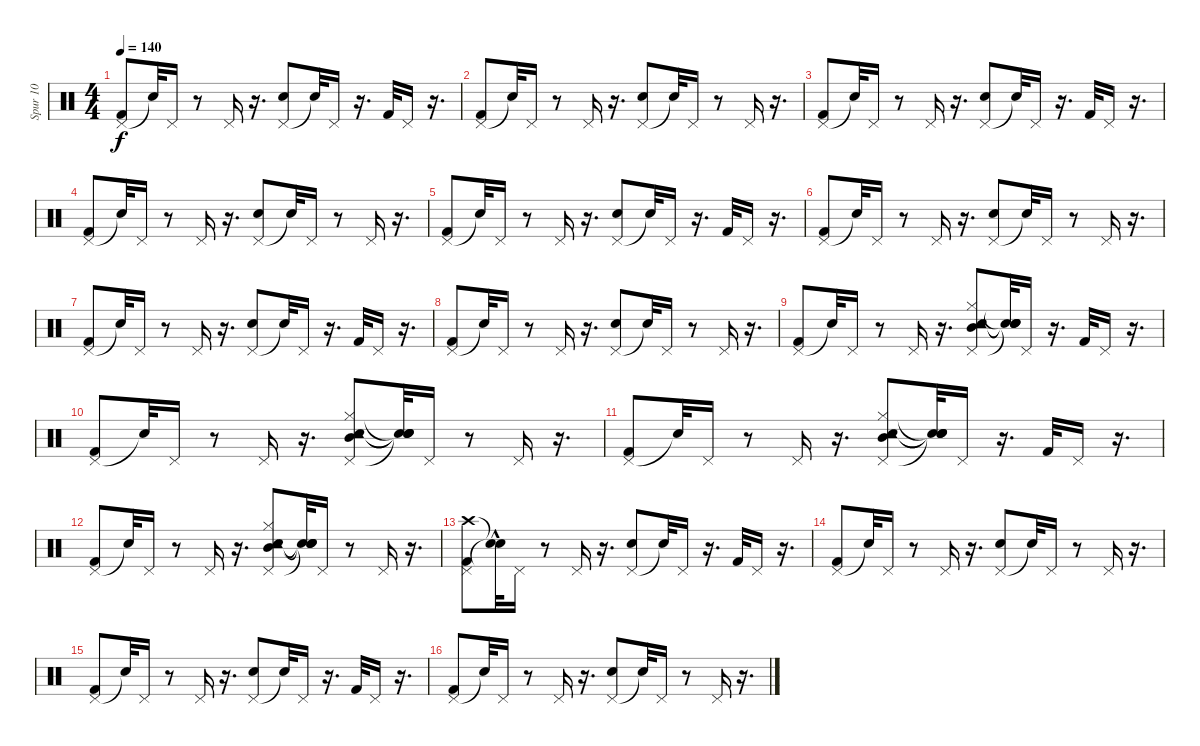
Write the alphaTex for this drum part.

\track ("Spur 10" "Spur 10") {instrument percussion}
\staff {score}
\articulation defaults
\ts (4 4)
\tempo 140
\clef neutral
\ks c
("Pedal Hi-Hat (hit)" "Kick (hit) 2").8{dy f} "Snare (hit)"{t}.32 "Pedal Hi-Hat (hit)".16 r.8 "Pedal Hi-Hat (hit)".16 r.16{d} ("Pedal Hi-Hat (hit)" "Snare (hit) 2").8 "Snare (hit)"{t}.32 "Pedal Hi-Hat (hit)".16 r.16{d} "Kick (hit) 2".32 "Pedal Hi-Hat (hit)".16 r.16{d} |
("Pedal Hi-Hat (hit)" "Kick (hit) 2").8 "Snare (hit)"{t}.32 "Pedal Hi-Hat (hit)".16 r.8 "Pedal Hi-Hat (hit)".16 r.16{d} ("Pedal Hi-Hat (hit)" "Snare (hit) 2").8 "Snare (hit)"{t}.32 "Pedal Hi-Hat (hit)".16 r.8 "Pedal Hi-Hat (hit)".16 r.16{d} |
("Pedal Hi-Hat (hit)" "Kick (hit) 2").8 "Snare (hit)"{t}.32 "Pedal Hi-Hat (hit)".16 r.8 "Pedal Hi-Hat (hit)".16 r.16{d} ("Pedal Hi-Hat (hit)" "Snare (hit) 2").8 "Snare (hit)"{t}.32 "Pedal Hi-Hat (hit)".16 r.16{d} "Kick (hit) 2".32 "Pedal Hi-Hat (hit)".16 r.16{d} |
("Pedal Hi-Hat (hit)" "Kick (hit) 2").8 "Snare (hit)"{t}.32 "Pedal Hi-Hat (hit)".16 r.8 "Pedal Hi-Hat (hit)".16 r.16{d} ("Pedal Hi-Hat (hit)" "Snare (hit) 2").8 "Snare (hit)"{t}.32 "Pedal Hi-Hat (hit)".16 r.8 "Pedal Hi-Hat (hit)".16 r.16{d} |
("Pedal Hi-Hat (hit)" "Kick (hit) 2").8 "Snare (hit)"{t}.32 "Pedal Hi-Hat (hit)".16 r.8 "Pedal Hi-Hat (hit)".16 r.16{d} ("Pedal Hi-Hat (hit)" "Snare (hit) 2").8 "Snare (hit)"{t}.32 "Pedal Hi-Hat (hit)".16 r.16{d} "Kick (hit) 2".32 "Pedal Hi-Hat (hit)".16 r.16{d} |
("Pedal Hi-Hat (hit)" "Kick (hit) 2").8 "Snare (hit)"{t}.32 "Pedal Hi-Hat (hit)".16 r.8 "Pedal Hi-Hat (hit)".16 r.16{d} ("Pedal Hi-Hat (hit)" "Snare (hit) 2").8 "Snare (hit)"{t}.32 "Pedal Hi-Hat (hit)".16 r.8 "Pedal Hi-Hat (hit)".16 r.16{d} |
("Pedal Hi-Hat (hit)" "Kick (hit) 2").8 "Snare (hit)"{t}.32 "Pedal Hi-Hat (hit)".16 r.8 "Pedal Hi-Hat (hit)".16 r.16{d} ("Pedal Hi-Hat (hit)" "Snare (hit) 2").8 "Snare (hit)"{t}.32 "Pedal Hi-Hat (hit)".16 r.16{d} "Kick (hit) 2".32 "Pedal Hi-Hat (hit)".16 r.16{d} |
("Pedal Hi-Hat (hit)" "Kick (hit) 2").8 "Snare (hit)"{t}.32 "Pedal Hi-Hat (hit)".16 r.8 "Pedal Hi-Hat (hit)".16 r.16{d} ("Pedal Hi-Hat (hit)" "Snare (hit) 2").8 "Snare (hit)"{t}.32 "Pedal Hi-Hat (hit)".16 r.8 "Pedal Hi-Hat (hit)".16 r.16{d} |
("Pedal Hi-Hat (hit)" "Kick (hit) 2").8 "Snare (hit)"{t}.32 "Pedal Hi-Hat (hit)".16 r.8 "Pedal Hi-Hat (hit)".16 r.16{d} ("Tambourine (hit)" "Hi-Hat (closed)" "Pedal Hi-Hat (hit)" "Snare (hit) 2" "Mid Tom (hit)").8 ("Snare (hit)"{t} "Snare (hit)"{t} "Snare (hit)"{t} "Snare (hit)"{t}).32 "Pedal Hi-Hat (hit)".16 r.16{d} "Kick (hit) 2".32 "Pedal Hi-Hat (hit)".16 r.16{d} |
("Pedal Hi-Hat (hit)" "Kick (hit) 2").8 "Snare (hit)"{t}.32 "Pedal Hi-Hat (hit)".16 r.8 "Pedal Hi-Hat (hit)".16 r.16{d} ("Tambourine (hit)" "Hi-Hat (closed)" "Pedal Hi-Hat (hit)" "Snare (hit) 2" "Mid Tom (hit)").8 ("Snare (hit)"{t} "Snare (hit)"{t} "Snare (hit)"{t} "Snare (hit)"{t}).32 "Pedal Hi-Hat (hit)".16 r.8 "Pedal Hi-Hat (hit)".16 r.16{d} |
("Pedal Hi-Hat (hit)" "Kick (hit) 2").8 "Snare (hit)"{t}.32 "Pedal Hi-Hat (hit)".16 r.8 "Pedal Hi-Hat (hit)".16 r.16{d} ("Tambourine (hit)" "Hi-Hat (closed)" "Pedal Hi-Hat (hit)" "Snare (hit) 2" "Mid Tom (hit)").8 ("Snare (hit)"{t} "Snare (hit)"{t} "Snare (hit)"{t} "Snare (hit)"{t}).32 "Pedal Hi-Hat (hit)".16 r.16{d} "Kick (hit) 2".32 "Pedal Hi-Hat (hit)".16 r.16{d} |
("Pedal Hi-Hat (hit)" "Kick (hit) 2").8 "Snare (hit)"{t}.32 "Pedal Hi-Hat (hit)".16 r.8 "Pedal Hi-Hat (hit)".16 r.16{d} ("Tambourine (hit)" "Pedal Hi-Hat (hit)" "Snare (hit) 2" "Mid Tom (hit)" "Hi-Hat (closed)").8 ("Snare (hit)"{t} "Snare (hit)"{t} "Snare (hit)"{t} "Snare (hit)"{t}).32 "Pedal Hi-Hat (hit)".16 r.8 "Pedal Hi-Hat (hit)".16 r.16{d} |
("Crash high (hit)" "Pedal Hi-Hat (hit)" "Kick (hit) 2").8 ("Snare (hit)"{hac t} "Snare (hit)"{t}).32 "Pedal Hi-Hat (hit)".16 r.8 "Pedal Hi-Hat (hit)".16 r.16{d} ("Pedal Hi-Hat (hit)" "Snare (hit) 2").8 "Snare (hit)"{t}.32 "Pedal Hi-Hat (hit)".16 r.16{d} "Kick (hit) 2".32 "Pedal Hi-Hat (hit)".16 r.16{d} |
("Pedal Hi-Hat (hit)" "Kick (hit) 2").8 "Snare (hit)"{t}.32 "Pedal Hi-Hat (hit)".16 r.8 "Pedal Hi-Hat (hit)".16 r.16{d} ("Pedal Hi-Hat (hit)" "Snare (hit) 2").8 "Snare (hit)"{t}.32 "Pedal Hi-Hat (hit)".16 r.8 "Pedal Hi-Hat (hit)".16 r.16{d} |
("Pedal Hi-Hat (hit)" "Kick (hit) 2").8 "Snare (hit)"{t}.32 "Pedal Hi-Hat (hit)".16 r.8 "Pedal Hi-Hat (hit)".16 r.16{d} ("Pedal Hi-Hat (hit)" "Snare (hit) 2").8 "Snare (hit)"{t}.32 "Pedal Hi-Hat (hit)".16 r.16{d} "Kick (hit) 2".32 "Pedal Hi-Hat (hit)".16 r.16{d} |
("Pedal Hi-Hat (hit)" "Kick (hit) 2").8 "Snare (hit)"{t}.32 "Pedal Hi-Hat (hit)".16 r.8 "Pedal Hi-Hat (hit)".16 r.16{d} ("Pedal Hi-Hat (hit)" "Snare (hit) 2").8 "Snare (hit)"{t}.32 "Pedal Hi-Hat (hit)".16 r.8 "Pedal Hi-Hat (hit)".16 r.16{d}
